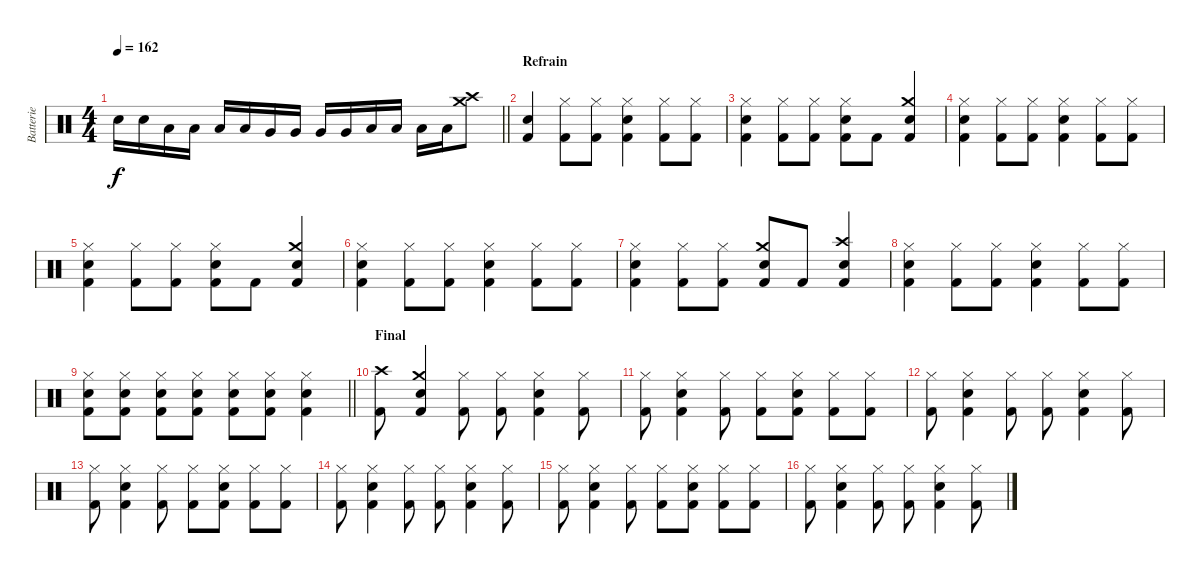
\track ("Batterie" "Batterie") {instrument percussion}
\staff {score}
\articulation defaults
\ts (4 4)
\tempo 162
\clef neutral
\barLineRight lightlight
\ks c "Snare (hit) 2".16{dy f} "Snare (hit) 2".16 "Low Tom (hit)".16 "Low Tom (hit)".16 "Low Tom (hit)".16 "Low Tom (hit)".16 "Very Low Tom (hit)".16 "Very Low Tom (hit)".16 "Very Low Tom (hit)".16 "Very Low Tom (hit)".16 "Low Floor Tom (hit)".16 "Low Floor Tom (hit)".16 "Low Floor Tom (hit)".16 "Low Floor Tom (hit)".16
("Crash medium (hit)" "Crash high (hit)").8 |
\section ("" "Refrain")
("Kick (hit) 2" "Snare (hit) 2").4 ("Kick (hit) 2" "Hi-Hat (closed)").8 ("Kick (hit) 2" "Hi-Hat (closed)").8 ("Kick (hit) 2" "Snare (hit) 2" "Hi-Hat (closed)").4 ("Kick (hit) 2" "Hi-Hat (closed)").8 ("Kick (hit) 2" "Hi-Hat (closed)").8 |
("Kick (hit) 2" "Snare (hit) 2" "Hi-Hat (closed)").4 ("Kick (hit) 2" "Hi-Hat (closed)").8 ("Kick (hit) 2" "Hi-Hat (closed)").8 ("Kick (hit) 2" "Snare (hit) 2" "Hi-Hat (closed)").8 "Kick (hit) 2".8 ("Kick (hit) 2" "Snare (hit) 2" "Crash medium (hit)").4 |
("Kick (hit) 2" "Snare (hit) 2" "Hi-Hat (closed)").4 ("Kick (hit) 2" "Hi-Hat (closed)").8 ("Kick (hit) 2" "Hi-Hat (closed)").8 ("Kick (hit) 2" "Snare (hit) 2" "Hi-Hat (closed)").4 ("Kick (hit) 2" "Hi-Hat (closed)").8 ("Kick (hit) 2" "Hi-Hat (closed)").8 |
("Kick (hit) 2" "Snare (hit) 2" "Hi-Hat (closed)").4 ("Kick (hit) 2" "Hi-Hat (closed)").8 ("Kick (hit) 2" "Hi-Hat (closed)").8 ("Kick (hit) 2" "Snare (hit) 2" "Hi-Hat (closed)").8 "Kick (hit) 2".8 ("Kick (hit) 2" "Snare (hit) 2" "Crash medium (hit)").4 |
("Kick (hit) 2" "Snare (hit) 2" "Hi-Hat (closed)").4 ("Kick (hit) 2" "Hi-Hat (closed)").8 ("Kick (hit) 2" "Hi-Hat (closed)").8 ("Kick (hit) 2" "Snare (hit) 2" "Hi-Hat (closed)").4 ("Kick (hit) 2" "Hi-Hat (closed)").8 ("Kick (hit) 2" "Hi-Hat (closed)").8 |
("Kick (hit) 2" "Snare (hit) 2" "Hi-Hat (closed)").4 ("Kick (hit) 2" "Hi-Hat (closed)").8 ("Kick (hit) 2" "Hi-Hat (closed)").8 ("Kick (hit) 2" "Snare (hit) 2" "Crash medium (hit)").8 "Kick (hit) 2".8 ("Kick (hit) 2" "Snare (hit) 2" "Crash high (hit)").4 |
("Kick (hit) 2" "Snare (hit) 2" "Hi-Hat (closed)").4 ("Kick (hit) 2" "Hi-Hat (closed)").8 ("Kick (hit) 2" "Hi-Hat (closed)").8 ("Kick (hit) 2" "Snare (hit) 2" "Hi-Hat (closed)").4 ("Kick (hit) 2" "Hi-Hat (closed)").8 ("Kick (hit) 2" "Hi-Hat (closed)").8 |
\barLineRight lightlight
("Kick (hit) 2" "Snare (hit) 2" "Hi-Hat (closed)").8 ("Kick (hit) 2" "Snare (hit) 2" "Hi-Hat (closed)").8 ("Kick (hit) 2" "Snare (hit) 2" "Hi-Hat (closed)").8 ("Kick (hit) 2" "Snare (hit) 2" "Hi-Hat (closed)").8 ("Kick (hit) 2" "Snare (hit) 2" "Hi-Hat (closed)").8 ("Kick (hit) 2" "Snare (hit) 2" "Hi-Hat (closed)").8 ("Kick (hit) 2" "Snare (hit) 2" "Hi-Hat (closed)").4 |
\section ("" "Final")
("Kick (hit) 2" "Crash high (hit)").8 ("Kick (hit) 2" "Snare (hit) 2" "Crash medium (hit)").4 ("Kick (hit) 2" "Hi-Hat (closed)").8 ("Kick (hit) 2" "Hi-Hat (closed)").8 ("Kick (hit) 2" "Snare (hit) 2" "Hi-Hat (closed)").4 ("Kick (hit) 2" "Hi-Hat (closed)").8 |
("Kick (hit) 2" "Hi-Hat (closed)").8 ("Kick (hit) 2" "Snare (hit) 2" "Hi-Hat (closed)").4 ("Kick (hit) 2" "Hi-Hat (closed)").8 ("Kick (hit) 2" "Hi-Hat (closed)").8 ("Kick (hit) 2" "Snare (hit) 2" "Hi-Hat (closed)").8 ("Kick (hit) 2" "Hi-Hat (closed)").8 ("Kick (hit) 2" "Hi-Hat (closed)").8 |
("Kick (hit) 2" "Hi-Hat (closed)").8 ("Kick (hit) 2" "Snare (hit) 2" "Hi-Hat (closed)").4 ("Kick (hit) 2" "Hi-Hat (closed)").8 ("Kick (hit) 2" "Hi-Hat (closed)").8 ("Kick (hit) 2" "Snare (hit) 2" "Hi-Hat (closed)").4 ("Kick (hit) 2" "Hi-Hat (closed)").8 |
("Kick (hit) 2" "Hi-Hat (closed)").8 ("Kick (hit) 2" "Snare (hit) 2" "Hi-Hat (closed)").4 ("Kick (hit) 2" "Hi-Hat (closed)").8 ("Kick (hit) 2" "Hi-Hat (closed)").8 ("Kick (hit) 2" "Snare (hit) 2" "Hi-Hat (closed)").8 ("Kick (hit) 2" "Hi-Hat (closed)").8 ("Kick (hit) 2" "Hi-Hat (closed)").8 |
("Kick (hit) 2" "Hi-Hat (closed)").8 ("Kick (hit) 2" "Snare (hit) 2" "Hi-Hat (closed)").4 ("Kick (hit) 2" "Hi-Hat (closed)").8 ("Kick (hit) 2" "Hi-Hat (closed)").8 ("Kick (hit) 2" "Snare (hit) 2" "Hi-Hat (closed)").4 ("Kick (hit) 2" "Hi-Hat (closed)").8 |
("Kick (hit) 2" "Hi-Hat (closed)").8 ("Kick (hit) 2" "Snare (hit) 2" "Hi-Hat (closed)").4 ("Kick (hit) 2" "Hi-Hat (closed)").8 ("Kick (hit) 2" "Hi-Hat (closed)").8 ("Kick (hit) 2" "Snare (hit) 2" "Hi-Hat (closed)").8 ("Kick (hit) 2" "Hi-Hat (closed)").8 ("Kick (hit) 2" "Hi-Hat (closed)").8 |
("Kick (hit) 2" "Hi-Hat (closed)").8 ("Kick (hit) 2" "Snare (hit) 2" "Hi-Hat (closed)").4 ("Kick (hit) 2" "Hi-Hat (closed)").8 ("Kick (hit) 2" "Hi-Hat (closed)").8 ("Kick (hit) 2" "Snare (hit) 2" "Hi-Hat (closed)").4 ("Kick (hit) 2" "Hi-Hat (closed)").8
